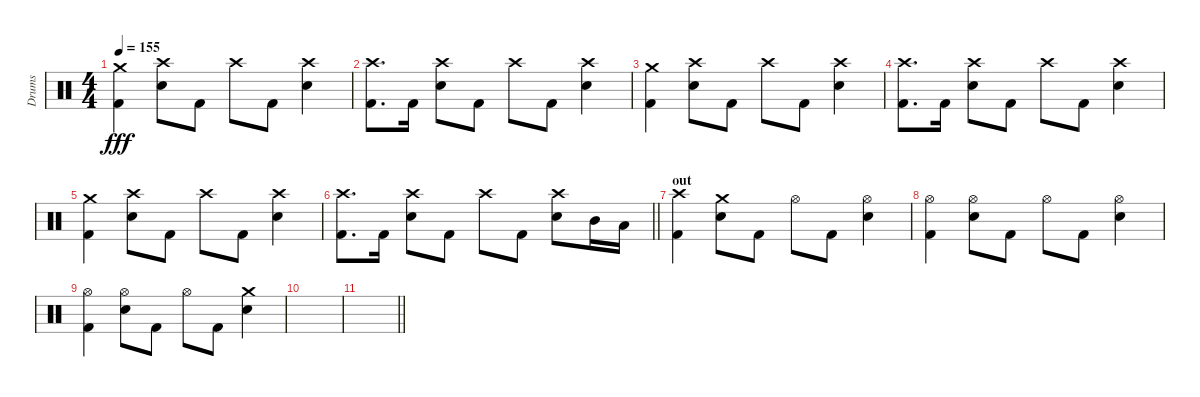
\track ("Drums" "Drums") {instrument percussion}
\staff {score}
\articulation defaults
\ts (4 4)
\tempo 155
\clef neutral
\ks c
("Crash medium (hit)" "Kick (hit) 2").4{dy fff} ("Crash high (hit)" "Snare (hit) 2").8 "Kick (hit) 2".8 "Crash high (hit)".8 "Kick (hit) 2".8 ("Crash high (hit)" "Snare (hit) 2").4 |
("Crash high (hit)" "Kick (hit) 2").8{d} "Kick (hit) 2".16 ("Crash high (hit)" "Snare (hit) 2").8 "Kick (hit) 2".8 "Crash high (hit)".8 "Kick (hit) 2".8 ("Crash high (hit)" "Snare (hit) 2").4 |
("Crash medium (hit)" "Kick (hit) 2").4 ("Crash high (hit)" "Snare (hit) 2").8 "Kick (hit) 2".8 "Crash high (hit)".8 "Kick (hit) 2".8 ("Crash high (hit)" "Snare (hit) 2").4 |
("Crash high (hit)" "Kick (hit) 2").8{d} "Kick (hit) 2".16 ("Crash high (hit)" "Snare (hit) 2").8 "Kick (hit) 2".8 "Crash high (hit)".8 "Kick (hit) 2".8 ("Crash high (hit)" "Snare (hit) 2").4 |
("Crash medium (hit)" "Kick (hit) 2").4 ("Crash high (hit)" "Snare (hit) 2").8 "Kick (hit) 2".8 "Crash high (hit)".8 "Kick (hit) 2".8 ("Crash high (hit)" "Snare (hit) 2").4 |
\barLineRight lightlight
("Crash high (hit)" "Kick (hit) 2").8{d} "Kick (hit) 2".16 ("Crash high (hit)" "Snare (hit) 2").8 "Kick (hit) 2".8 "Crash high (hit)".8 "Kick (hit) 2".8 ("Crash high (hit)" "Snare (hit) 2").8 "Mid Tom (hit)".16 "Low Tom (hit)".16 |
\section ("" "out")
("Crash high (hit)" "Kick (hit) 2").4 ("Crash medium (hit)" "Snare (hit) 2").8 "Kick (hit) 2".8 "Hi-Hat (open)".8 "Kick (hit) 2".8 ("Snare (hit) 2" "Hi-Hat (open)").4 |
("Hi-Hat (open)" "Kick (hit) 2").4 ("Snare (hit) 2" "Hi-Hat (open)").8 "Kick (hit) 2".8 "Hi-Hat (open)".8 "Kick (hit) 2".8 ("Snare (hit) 2" "Hi-Hat (open)").4 |
("Hi-Hat (open)" "Kick (hit) 2").4 ("Snare (hit) 2" "Hi-Hat (open)").8 "Kick (hit) 2".8 "Hi-Hat (open)".8 "Kick (hit) 2".8 ("Crash medium (hit)" "Snare (hit) 2").4 |
|
\barLineRight lightlight
